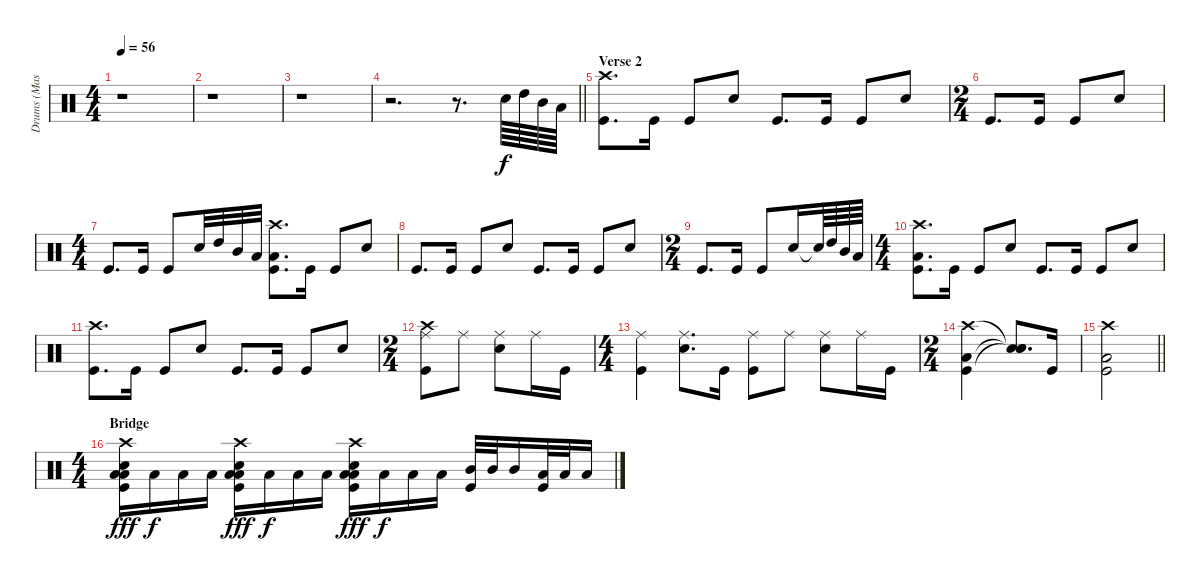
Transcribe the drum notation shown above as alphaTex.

\track ("Drums (Mason)" "Drums (Mas") {instrument percussion}
\staff {score}
\articulation defaults
\ts (4 4)
\tempo 56
\clef neutral
\ks c
r.1{dy f} |
r.1 |
r.1 |
\barLineRight lightlight
r.2{d} r.8{d} "Snare (hit) 2".64 "High Tom (hit)".64 "Mid Tom (hit)".64 "Low Tom (hit)".64 |
\section ("" "Verse 2")
("Crash high (hit)" "Kick (hit)").8{d} "Kick (hit)".16 "Kick (hit)".8 "Snare (hit) 2".8 "Kick (hit)".8{d} "Kick (hit)".16 "Kick (hit)".8 "Snare (hit) 2".8 |
\ts (2 4)
"Kick (hit)".8{d} "Kick (hit)".16 "Kick (hit)".8 "Snare (hit) 2".8 |
\ts (4 4)
"Kick (hit)".8{d} "Kick (hit)".16 "Kick (hit)".8 "Snare (hit) 2".32 "High Tom (hit)".32 "Mid Tom (hit)".32 "Low Tom (hit)".32 ("Crash high (hit)" "Low Floor Tom (hit)" "Kick (hit)").8{d} "Kick (hit)".16 "Kick (hit)".8 "Snare (hit) 2".8 |
"Kick (hit)".8{d} "Kick (hit)".16 "Kick (hit)".8 "Snare (hit) 2".8 "Kick (hit)".8{d} "Kick (hit)".16 "Kick (hit)".8 "Snare (hit) 2".8 |
\ts (2 4)
"Kick (hit)".8{d} "Kick (hit)".16 "Kick (hit)".8 "Snare (hit) 2".16 "Snare (hit)"{t}.64 "High Tom (hit)".64 "Mid Tom (hit)".64 "Low Tom (hit)".64 |
\ts (4 4)
("Crash high (hit)" "Low Floor Tom (hit)" "Kick (hit)").8{d} "Kick (hit)".16 "Kick (hit)".8 "Snare (hit) 2".8 "Kick (hit)".8{d} "Kick (hit)".16 "Kick (hit)".8 "Snare (hit) 2".8 |
("Crash high (hit)" "Kick (hit)").8{d} "Kick (hit)".16 "Kick (hit)".8 "Snare (hit) 2".8 "Kick (hit)".8{d} "Kick (hit)".16 "Kick (hit)".8 "Snare (hit) 2".8 |
\ts (2 4)
("Ride (middle)" "Crash high (hit)" "Kick (hit)").8 "Ride (middle)".8 ("Ride (middle)" "Snare (hit) 2").8 "Ride (middle)".16 "Kick (hit)".16 |
\ts (4 4)
("Ride (middle)" "Kick (hit)").4 ("Ride (middle)" "Snare (hit) 2").8{d} "Kick (hit)".16 ("Ride (middle)" "Kick (hit)").8 "Ride (middle)".8 ("Ride (middle)" "Snare (hit) 2").8 "Ride (middle)".16 "Kick (hit)".16 |
\ts (2 4)
("Crash high (hit)" "Low Floor Tom (hit)" "Kick (hit)").4 ("Snare (hit)"{t} "Snare (hit)"{t} "Snare (hit)"{t}).8{d} "Kick (hit)".16 |
\barLineRight lightlight
("Crash high (hit)" "Low Floor Tom (hit)" "Kick (hit)").2 |
\ts (4 4)
\section ("" "Bridge")
("Crash high (hit)" "Low Tom (hit)" "Low Floor Tom (hit)" "Snare (hit) 2" "Kick (hit)").16{dy fff} "Low Floor Tom (hit)".16{dy f} "Low Floor Tom (hit)".16 "Low Floor Tom (hit)".16 ("Crash high (hit)" "Low Tom (hit)" "Low Floor Tom (hit)" "Snare (hit) 2" "Kick (hit)").16{dy fff} "Low Floor Tom (hit)".16{dy f} "Low Floor Tom (hit)".16 "Low Floor Tom (hit)".16 ("Crash high (hit)" "Low Tom (hit)" "Low Floor Tom (hit)" "Snare (hit) 2" "Kick (hit)").16{dy fff} "Low Floor Tom (hit)".16{dy f} "Low Floor Tom (hit)".16 "Low Floor Tom (hit)".16 ("Mid Tom (hit)" "Kick (hit)").32 "Mid Tom (hit)".32 "Mid Tom (hit)".16 ("Low Tom (hit)" "Kick (hit)").32 "Low Tom (hit)".32 "Low Tom (hit)".16
